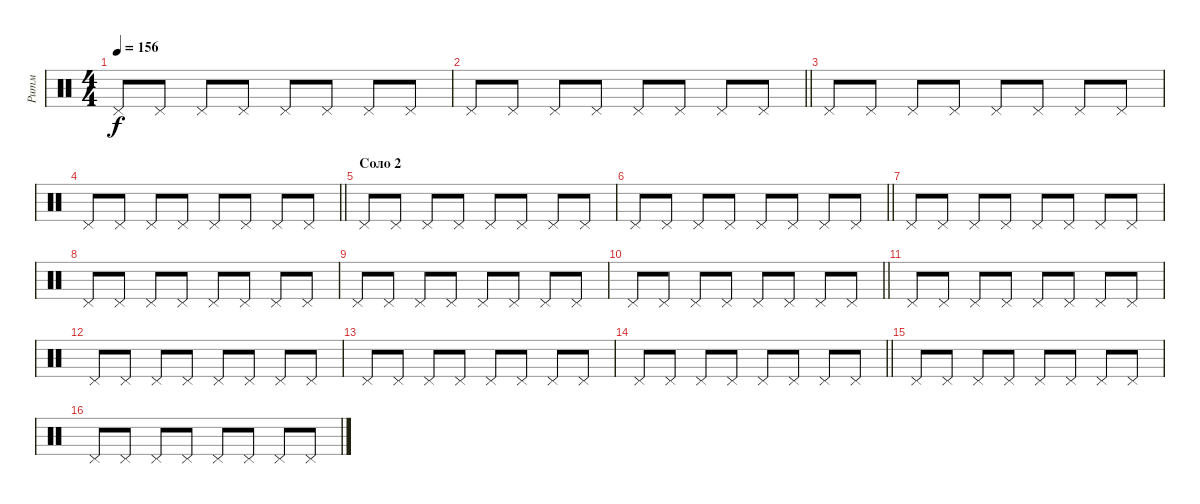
\track ("Ритм" "Ритм") {instrument percussion}
\staff {score}
\articulation defaults
\ts (4 4)
\tempo 156
\clef neutral
\ks c "Pedal Hi-Hat (hit)".8{dy f} "Pedal Hi-Hat (hit)".8 "Pedal Hi-Hat (hit)".8 "Pedal Hi-Hat (hit)".8 "Pedal Hi-Hat (hit)".8 "Pedal Hi-Hat (hit)".8 "Pedal Hi-Hat (hit)".8 "Pedal Hi-Hat (hit)".8
|
\barLineRight lightlight "Pedal Hi-Hat (hit)".8 "Pedal Hi-Hat (hit)".8 "Pedal Hi-Hat (hit)".8 "Pedal Hi-Hat (hit)".8 "Pedal Hi-Hat (hit)".8 "Pedal Hi-Hat (hit)".8 "Pedal Hi-Hat (hit)".8 "Pedal Hi-Hat (hit)".8
|
"Pedal Hi-Hat (hit)".8 "Pedal Hi-Hat (hit)".8 "Pedal Hi-Hat (hit)".8 "Pedal Hi-Hat (hit)".8 "Pedal Hi-Hat (hit)".8 "Pedal Hi-Hat (hit)".8 "Pedal Hi-Hat (hit)".8 "Pedal Hi-Hat (hit)".8 |
\barLineRight lightlight "Pedal Hi-Hat (hit)".8 "Pedal Hi-Hat (hit)".8 "Pedal Hi-Hat (hit)".8 "Pedal Hi-Hat (hit)".8 "Pedal Hi-Hat (hit)".8 "Pedal Hi-Hat (hit)".8 "Pedal Hi-Hat (hit)".8 "Pedal Hi-Hat (hit)".8
|
\section ("" "Соло 2")
"Pedal Hi-Hat (hit)".8 "Pedal Hi-Hat (hit)".8 "Pedal Hi-Hat (hit)".8 "Pedal Hi-Hat (hit)".8 "Pedal Hi-Hat (hit)".8 "Pedal Hi-Hat (hit)".8 "Pedal Hi-Hat (hit)".8 "Pedal Hi-Hat (hit)".8 |
\barLineRight lightlight "Pedal Hi-Hat (hit)".8 "Pedal Hi-Hat (hit)".8 "Pedal Hi-Hat (hit)".8 "Pedal Hi-Hat (hit)".8 "Pedal Hi-Hat (hit)".8 "Pedal Hi-Hat (hit)".8 "Pedal Hi-Hat (hit)".8 "Pedal Hi-Hat (hit)".8
|
"Pedal Hi-Hat (hit)".8 "Pedal Hi-Hat (hit)".8 "Pedal Hi-Hat (hit)".8 "Pedal Hi-Hat (hit)".8 "Pedal Hi-Hat (hit)".8 "Pedal Hi-Hat (hit)".8 "Pedal Hi-Hat (hit)".8 "Pedal Hi-Hat (hit)".8 |
"Pedal Hi-Hat (hit)".8 "Pedal Hi-Hat (hit)".8 "Pedal Hi-Hat (hit)".8 "Pedal Hi-Hat (hit)".8 "Pedal Hi-Hat (hit)".8 "Pedal Hi-Hat (hit)".8 "Pedal Hi-Hat (hit)".8 "Pedal Hi-Hat (hit)".8 |
"Pedal Hi-Hat (hit)".8 "Pedal Hi-Hat (hit)".8 "Pedal Hi-Hat (hit)".8 "Pedal Hi-Hat (hit)".8 "Pedal Hi-Hat (hit)".8 "Pedal Hi-Hat (hit)".8 "Pedal Hi-Hat (hit)".8 "Pedal Hi-Hat (hit)".8 |
\barLineRight lightlight "Pedal Hi-Hat (hit)".8 "Pedal Hi-Hat (hit)".8 "Pedal Hi-Hat (hit)".8 "Pedal Hi-Hat (hit)".8 "Pedal Hi-Hat (hit)".8 "Pedal Hi-Hat (hit)".8 "Pedal Hi-Hat (hit)".8 "Pedal Hi-Hat (hit)".8
|
"Pedal Hi-Hat (hit)".8 "Pedal Hi-Hat (hit)".8 "Pedal Hi-Hat (hit)".8 "Pedal Hi-Hat (hit)".8 "Pedal Hi-Hat (hit)".8 "Pedal Hi-Hat (hit)".8 "Pedal Hi-Hat (hit)".8 "Pedal Hi-Hat (hit)".8 |
"Pedal Hi-Hat (hit)".8 "Pedal Hi-Hat (hit)".8 "Pedal Hi-Hat (hit)".8 "Pedal Hi-Hat (hit)".8 "Pedal Hi-Hat (hit)".8 "Pedal Hi-Hat (hit)".8 "Pedal Hi-Hat (hit)".8 "Pedal Hi-Hat (hit)".8 |
"Pedal Hi-Hat (hit)".8 "Pedal Hi-Hat (hit)".8 "Pedal Hi-Hat (hit)".8 "Pedal Hi-Hat (hit)".8 "Pedal Hi-Hat (hit)".8 "Pedal Hi-Hat (hit)".8 "Pedal Hi-Hat (hit)".8 "Pedal Hi-Hat (hit)".8 |
\barLineRight lightlight "Pedal Hi-Hat (hit)".8 "Pedal Hi-Hat (hit)".8 "Pedal Hi-Hat (hit)".8 "Pedal Hi-Hat (hit)".8 "Pedal Hi-Hat (hit)".8 "Pedal Hi-Hat (hit)".8 "Pedal Hi-Hat (hit)".8 "Pedal Hi-Hat (hit)".8
|
"Pedal Hi-Hat (hit)".8 "Pedal Hi-Hat (hit)".8 "Pedal Hi-Hat (hit)".8 "Pedal Hi-Hat (hit)".8 "Pedal Hi-Hat (hit)".8 "Pedal Hi-Hat (hit)".8 "Pedal Hi-Hat (hit)".8 "Pedal Hi-Hat (hit)".8 |
"Pedal Hi-Hat (hit)".8 "Pedal Hi-Hat (hit)".8 "Pedal Hi-Hat (hit)".8 "Pedal Hi-Hat (hit)".8 "Pedal Hi-Hat (hit)".8 "Pedal Hi-Hat (hit)".8 "Pedal Hi-Hat (hit)".8 "Pedal Hi-Hat (hit)".8
